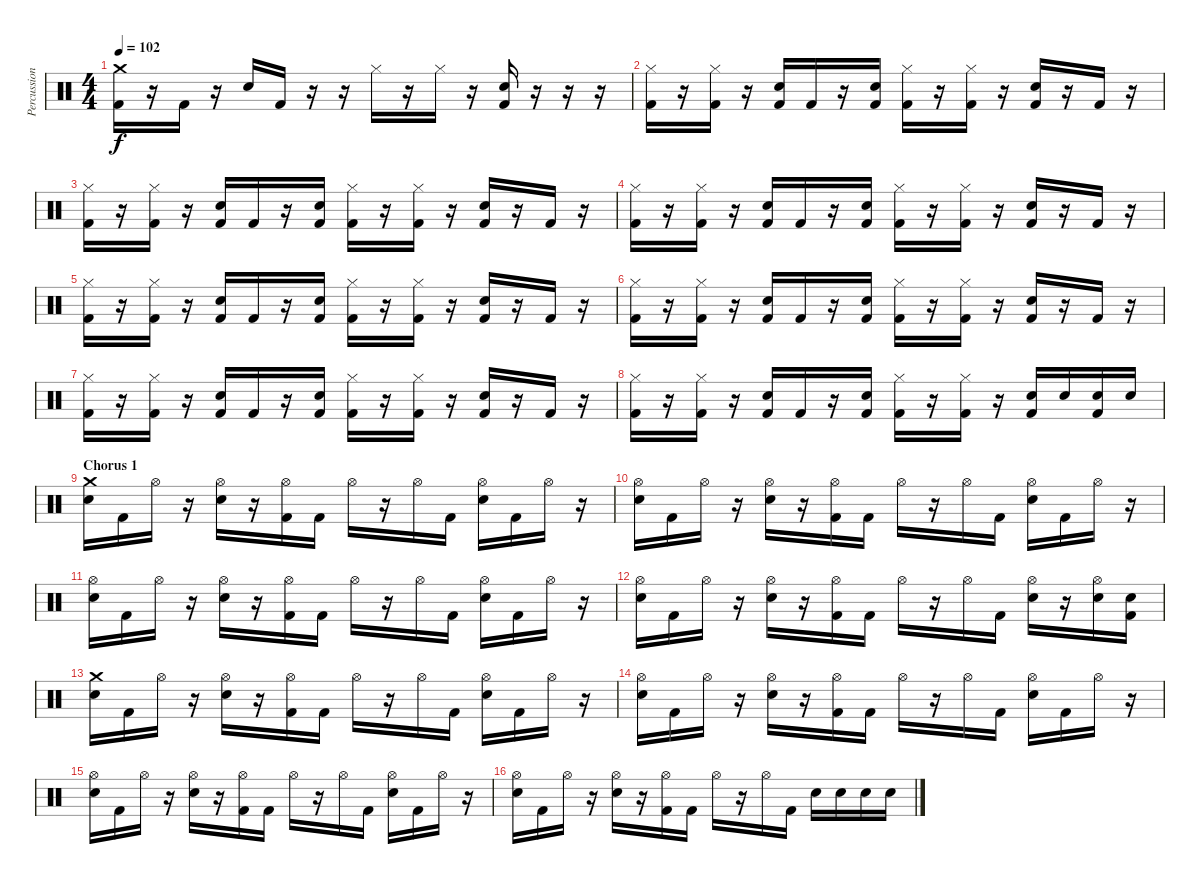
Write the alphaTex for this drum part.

\track ("Percussion" "Percussion") {instrument percussion}
\staff {score}
\articulation defaults
\ts (4 4)
\tempo 102
\clef neutral
\ks c
("Crash medium (hit)" "Kick (hit) 2").16{dy f} r.16 "Kick (hit) 2".16 r.16 "Snare (hit) 2".16 "Kick (hit) 2".16 r.16 r.16 "Hi-Hat (closed)".16 r.16 "Hi-Hat (closed)".16 r.16 ("Snare (hit) 2" "Kick (hit) 2").16 r.16 r.16 r.16 |
("Hi-Hat (closed)" "Kick (hit) 2").16 r.16 ("Hi-Hat (closed)" "Kick (hit) 2").16 r.16 ("Snare (hit) 2" "Kick (hit) 2").16 "Kick (hit) 2".16 r.16 ("Snare (hit) 2" "Kick (hit) 2").16 ("Hi-Hat (closed)" "Kick (hit) 2").16 r.16 ("Hi-Hat (closed)" "Kick (hit) 2").16 r.16 ("Snare (hit) 2" "Kick (hit) 2").16 r.16 "Kick (hit) 2".16 r.16 |
("Hi-Hat (closed)" "Kick (hit) 2").16 r.16 ("Hi-Hat (closed)" "Kick (hit) 2").16 r.16 ("Snare (hit) 2" "Kick (hit) 2").16 "Kick (hit) 2".16 r.16 ("Snare (hit) 2" "Kick (hit) 2").16 ("Hi-Hat (closed)" "Kick (hit) 2").16 r.16 ("Hi-Hat (closed)" "Kick (hit) 2").16 r.16 ("Snare (hit) 2" "Kick (hit) 2").16 r.16 "Kick (hit) 2".16 r.16 |
("Hi-Hat (closed)" "Kick (hit) 2").16 r.16 ("Hi-Hat (closed)" "Kick (hit) 2").16 r.16 ("Snare (hit) 2" "Kick (hit) 2").16 "Kick (hit) 2".16 r.16 ("Snare (hit) 2" "Kick (hit) 2").16 ("Hi-Hat (closed)" "Kick (hit) 2").16 r.16 ("Hi-Hat (closed)" "Kick (hit) 2").16 r.16 ("Snare (hit) 2" "Kick (hit) 2").16 r.16 "Kick (hit) 2".16 r.16 |
("Hi-Hat (closed)" "Kick (hit) 2").16 r.16 ("Hi-Hat (closed)" "Kick (hit) 2").16 r.16 ("Snare (hit) 2" "Kick (hit) 2").16 "Kick (hit) 2".16 r.16 ("Snare (hit) 2" "Kick (hit) 2").16 ("Hi-Hat (closed)" "Kick (hit) 2").16 r.16 ("Hi-Hat (closed)" "Kick (hit) 2").16 r.16 ("Snare (hit) 2" "Kick (hit) 2").16 r.16 "Kick (hit) 2".16 r.16 |
("Hi-Hat (closed)" "Kick (hit) 2").16 r.16 ("Hi-Hat (closed)" "Kick (hit) 2").16 r.16 ("Snare (hit) 2" "Kick (hit) 2").16 "Kick (hit) 2".16 r.16 ("Snare (hit) 2" "Kick (hit) 2").16 ("Hi-Hat (closed)" "Kick (hit) 2").16 r.16 ("Hi-Hat (closed)" "Kick (hit) 2").16 r.16 ("Snare (hit) 2" "Kick (hit) 2").16 r.16 "Kick (hit) 2".16 r.16 |
("Hi-Hat (closed)" "Kick (hit) 2").16 r.16 ("Hi-Hat (closed)" "Kick (hit) 2").16 r.16 ("Snare (hit) 2" "Kick (hit) 2").16 "Kick (hit) 2".16 r.16 ("Snare (hit) 2" "Kick (hit) 2").16 ("Hi-Hat (closed)" "Kick (hit) 2").16 r.16 ("Hi-Hat (closed)" "Kick (hit) 2").16 r.16 ("Snare (hit) 2" "Kick (hit) 2").16 r.16 "Kick (hit) 2".16 r.16 |
("Hi-Hat (closed)" "Kick (hit) 2").16 r.16 ("Hi-Hat (closed)" "Kick (hit) 2").16 r.16 ("Snare (hit) 2" "Kick (hit) 2").16 "Kick (hit) 2".16 r.16 ("Snare (hit) 2" "Kick (hit) 2").16 ("Hi-Hat (closed)" "Kick (hit) 2").16 r.16 ("Hi-Hat (closed)" "Kick (hit) 2").16 r.16 ("Snare (hit) 2" "Kick (hit) 2").16 "Snare (hit) 2".16 ("Snare (hit) 2" "Kick (hit) 2").16 "Snare (hit) 2".16 |
\section ("" "Chorus 1")
("Crash medium (hit)" "Snare (hit) 2").16 "Kick (hit) 2".16 "Hi-Hat (open)".16 r.16 ("Hi-Hat (open)" "Snare (hit) 2").16 r.16 ("Hi-Hat (open)" "Kick (hit) 2").16 "Kick (hit) 2".16 "Hi-Hat (open)".16 r.16 "Hi-Hat (open)".16 "Kick (hit) 2".16 ("Hi-Hat (open)" "Snare (hit) 2").16 "Kick (hit) 2".16 "Hi-Hat (open)".16 r.16 |
("Hi-Hat (open)" "Snare (hit) 2").16 "Kick (hit) 2".16 "Hi-Hat (open)".16 r.16 ("Hi-Hat (open)" "Snare (hit) 2").16 r.16 ("Hi-Hat (open)" "Kick (hit) 2").16 "Kick (hit) 2".16 "Hi-Hat (open)".16 r.16 "Hi-Hat (open)".16 "Kick (hit) 2".16 ("Hi-Hat (open)" "Snare (hit) 2").16 "Kick (hit) 2".16 "Hi-Hat (open)".16 r.16 |
("Hi-Hat (open)" "Snare (hit) 2").16 "Kick (hit) 2".16 "Hi-Hat (open)".16 r.16 ("Hi-Hat (open)" "Snare (hit) 2").16 r.16 ("Hi-Hat (open)" "Kick (hit) 2").16 "Kick (hit) 2".16 "Hi-Hat (open)".16 r.16 "Hi-Hat (open)".16 "Kick (hit) 2".16 ("Hi-Hat (open)" "Snare (hit) 2").16 "Kick (hit) 2".16 "Hi-Hat (open)".16 r.16 |
("Hi-Hat (open)" "Snare (hit) 2").16 "Kick (hit) 2".16 "Hi-Hat (open)".16 r.16 ("Hi-Hat (open)" "Snare (hit) 2").16 r.16 ("Hi-Hat (open)" "Kick (hit) 2").16 "Kick (hit) 2".16 "Hi-Hat (open)".16 r.16 "Hi-Hat (open)".16 "Kick (hit) 2".16 ("Hi-Hat (open)" "Snare (hit) 2").16 r.16 ("Hi-Hat (open)" "Snare (hit) 2").16 ("Snare (hit) 2" "Kick (hit) 2").16 |
("Crash medium (hit)" "Snare (hit) 2").16 "Kick (hit) 2".16 "Hi-Hat (open)".16 r.16 ("Hi-Hat (open)" "Snare (hit) 2").16 r.16 ("Hi-Hat (open)" "Kick (hit) 2").16 "Kick (hit) 2".16 "Hi-Hat (open)".16 r.16 "Hi-Hat (open)".16 "Kick (hit) 2".16 ("Hi-Hat (open)" "Snare (hit) 2").16 "Kick (hit) 2".16 "Hi-Hat (open)".16 r.16 |
("Hi-Hat (open)" "Snare (hit) 2").16 "Kick (hit) 2".16 "Hi-Hat (open)".16 r.16 ("Hi-Hat (open)" "Snare (hit) 2").16 r.16 ("Hi-Hat (open)" "Kick (hit) 2").16 "Kick (hit) 2".16 "Hi-Hat (open)".16 r.16 "Hi-Hat (open)".16 "Kick (hit) 2".16 ("Hi-Hat (open)" "Snare (hit) 2").16 "Kick (hit) 2".16 "Hi-Hat (open)".16 r.16 |
("Hi-Hat (open)" "Snare (hit) 2").16 "Kick (hit) 2".16 "Hi-Hat (open)".16 r.16 ("Hi-Hat (open)" "Snare (hit) 2").16 r.16 ("Hi-Hat (open)" "Kick (hit) 2").16 "Kick (hit) 2".16 "Hi-Hat (open)".16 r.16 "Hi-Hat (open)".16 "Kick (hit) 2".16 ("Hi-Hat (open)" "Snare (hit) 2").16 "Kick (hit) 2".16 "Hi-Hat (open)".16 r.16 |
("Hi-Hat (open)" "Snare (hit) 2").16 "Kick (hit) 2".16 "Hi-Hat (open)".16 r.16 ("Hi-Hat (open)" "Snare (hit) 2").16 r.16 ("Hi-Hat (open)" "Kick (hit) 2").16 "Kick (hit) 2".16 "Hi-Hat (open)".16 r.16 "Hi-Hat (open)".16 "Kick (hit) 2".16 "Snare (hit) 2".16 "Snare (hit) 2".16 "Snare (hit) 2".16 "Snare (hit) 2".16
